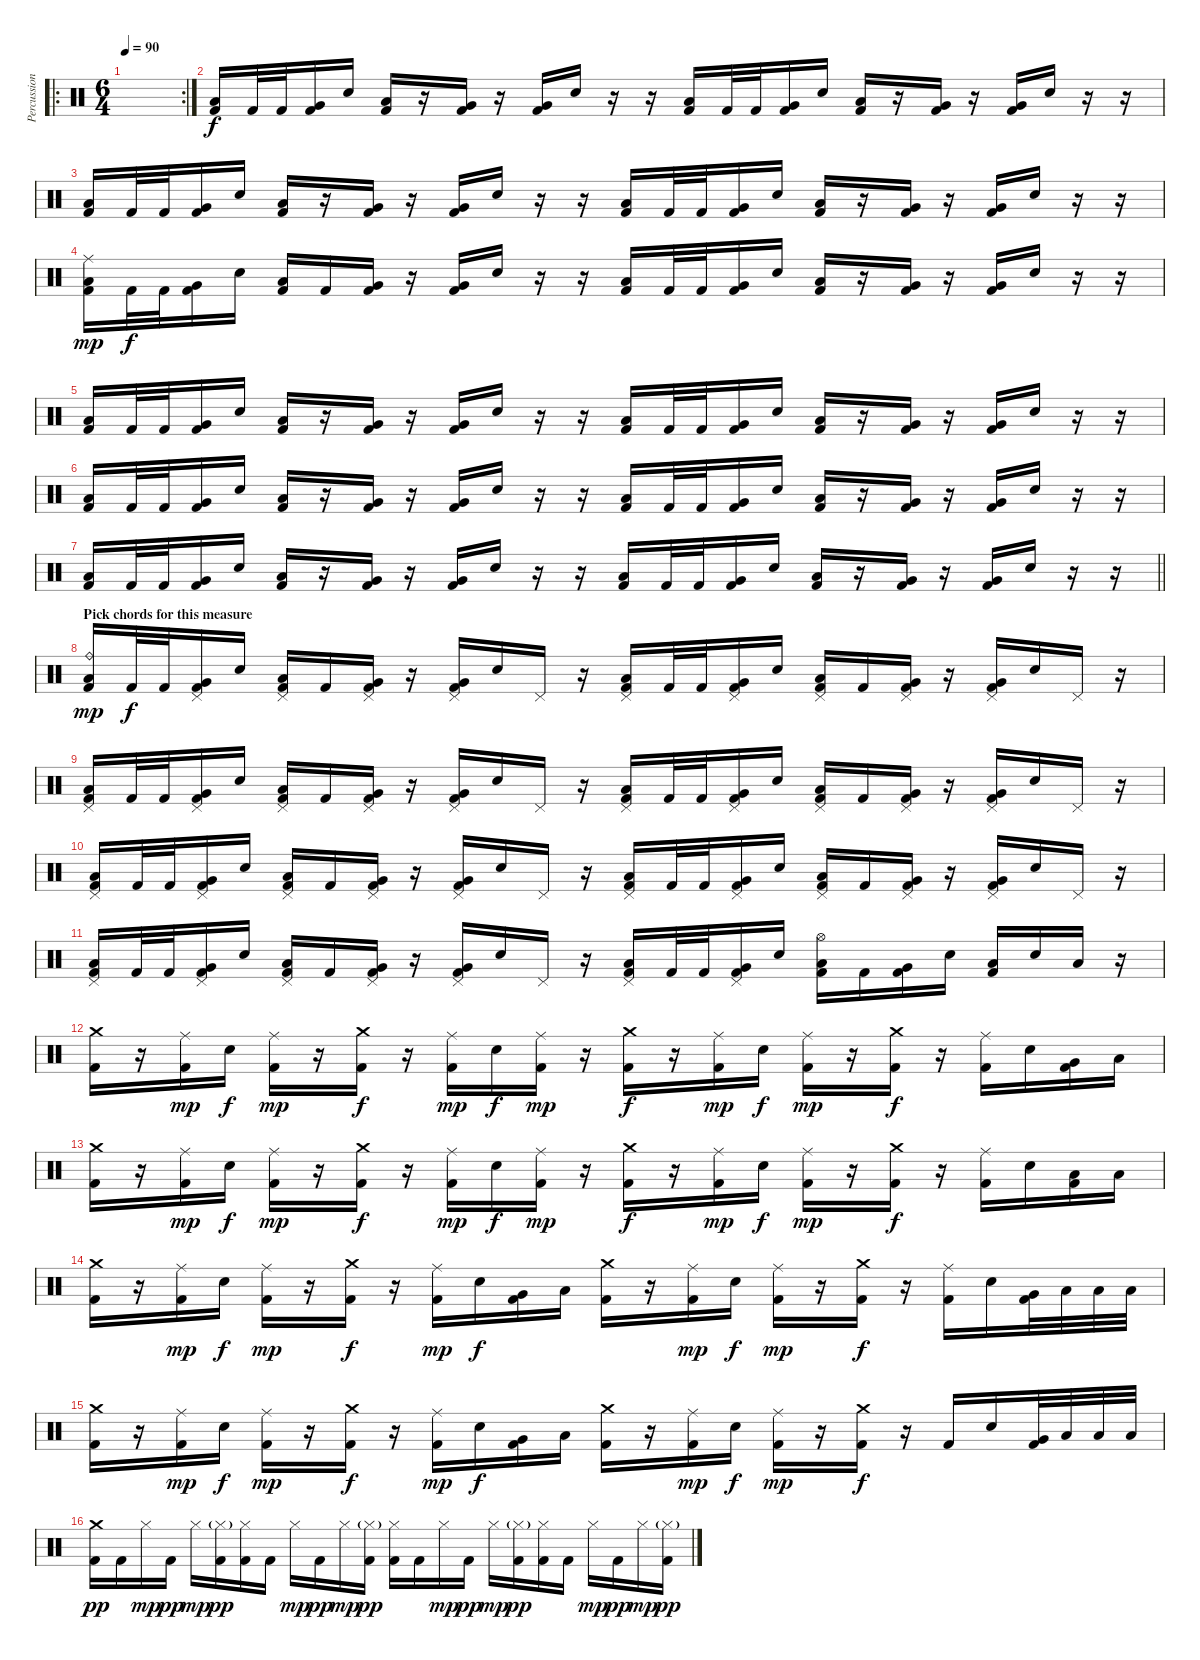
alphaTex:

\track ("Percussion" "Percussion") {instrument percussion}
\staff {score}
\articulation defaults
\ro
\rc 2
\ts (6 4)
\tempo 90
\clef neutral
\ks c
|
("Low Floor Tom (hit)" "Kick (hit) 2").16 "Kick (hit) 2".32 "Kick (hit) 2".32 ("Very Low Tom (hit)" "Kick (hit) 2").16 "Electric Snare (hit)".16 ("Low Floor Tom (hit)" "Kick (hit) 2").16 r.16 ("Very Low Tom (hit)" "Kick (hit) 2").16 r.16 ("Very Low Tom (hit)" "Kick (hit) 2").16 "Electric Snare (hit)".16 r.16 r.16 ("Low Floor Tom (hit)" "Kick (hit) 2").16 "Kick (hit) 2".32 "Kick (hit) 2".32 ("Very Low Tom (hit)" "Kick (hit) 2").16 "Electric Snare (hit)".16 ("Low Floor Tom (hit)" "Kick (hit) 2").16 r.16 ("Very Low Tom (hit)" "Kick (hit) 2").16 r.16 ("Very Low Tom (hit)" "Kick (hit) 2").16 "Electric Snare (hit)".16 r.16 r.16 |
("Low Floor Tom (hit)" "Kick (hit) 2").16 "Kick (hit) 2".32 "Kick (hit) 2".32 ("Very Low Tom (hit)" "Kick (hit) 2").16 "Electric Snare (hit)".16 ("Low Floor Tom (hit)" "Kick (hit) 2").16 r.16 ("Very Low Tom (hit)" "Kick (hit) 2").16 r.16 ("Very Low Tom (hit)" "Kick (hit) 2").16 "Electric Snare (hit)".16 r.16 r.16 ("Low Floor Tom (hit)" "Kick (hit) 2").16 "Kick (hit) 2".32 "Kick (hit) 2".32 ("Very Low Tom (hit)" "Kick (hit) 2").16 "Electric Snare (hit)".16 ("Low Floor Tom (hit)" "Kick (hit) 2").16 r.16 ("Very Low Tom (hit)" "Kick (hit) 2").16 r.16 ("Very Low Tom (hit)" "Kick (hit) 2").16 "Electric Snare (hit)".16 r.16 r.16 |
("Ride (middle)" "Low Floor Tom (hit)" "Kick (hit) 2").16{dy mp} "Kick (hit) 2".32{dy f} "Kick (hit) 2".32 ("Very Low Tom (hit)" "Kick (hit) 2").16 "Electric Snare (hit)".16 ("Low Floor Tom (hit)" "Kick (hit) 2").16 "Kick (hit) 2".16 ("Very Low Tom (hit)" "Kick (hit) 2").16 r.16 ("Very Low Tom (hit)" "Kick (hit) 2").16 "Electric Snare (hit)".16 r.16 r.16 ("Low Floor Tom (hit)" "Kick (hit) 2").16 "Kick (hit) 2".32 "Kick (hit) 2".32 ("Very Low Tom (hit)" "Kick (hit) 2").16 "Electric Snare (hit)".16 ("Low Floor Tom (hit)" "Kick (hit) 2").16 r.16 ("Very Low Tom (hit)" "Kick (hit) 2").16 r.16 ("Very Low Tom (hit)" "Kick (hit) 2").16 "Electric Snare (hit)".16 r.16 r.16 |
("Low Floor Tom (hit)" "Kick (hit) 2").16 "Kick (hit) 2".32 "Kick (hit) 2".32 ("Very Low Tom (hit)" "Kick (hit) 2").16 "Electric Snare (hit)".16 ("Low Floor Tom (hit)" "Kick (hit) 2").16 r.16 ("Very Low Tom (hit)" "Kick (hit) 2").16 r.16 ("Very Low Tom (hit)" "Kick (hit) 2").16 "Electric Snare (hit)".16 r.16 r.16 ("Low Floor Tom (hit)" "Kick (hit) 2").16 "Kick (hit) 2".32 "Kick (hit) 2".32 ("Very Low Tom (hit)" "Kick (hit) 2").16 "Electric Snare (hit)".16 ("Low Floor Tom (hit)" "Kick (hit) 2").16 r.16 ("Very Low Tom (hit)" "Kick (hit) 2").16 r.16 ("Very Low Tom (hit)" "Kick (hit) 2").16 "Electric Snare (hit)".16 r.16 r.16 |
("Low Floor Tom (hit)" "Kick (hit) 2").16 "Kick (hit) 2".32 "Kick (hit) 2".32 ("Very Low Tom (hit)" "Kick (hit) 2").16 "Electric Snare (hit)".16 ("Low Floor Tom (hit)" "Kick (hit) 2").16 r.16 ("Very Low Tom (hit)" "Kick (hit) 2").16 r.16 ("Very Low Tom (hit)" "Kick (hit) 2").16 "Electric Snare (hit)".16 r.16 r.16 ("Low Floor Tom (hit)" "Kick (hit) 2").16 "Kick (hit) 2".32 "Kick (hit) 2".32 ("Very Low Tom (hit)" "Kick (hit) 2").16 "Electric Snare (hit)".16 ("Low Floor Tom (hit)" "Kick (hit) 2").16 r.16 ("Very Low Tom (hit)" "Kick (hit) 2").16 r.16 ("Very Low Tom (hit)" "Kick (hit) 2").16 "Electric Snare (hit)".16 r.16 r.16 |
\barLineRight lightlight
("Low Floor Tom (hit)" "Kick (hit) 2").16 "Kick (hit) 2".32 "Kick (hit) 2".32 ("Very Low Tom (hit)" "Kick (hit) 2").16 "Electric Snare (hit)".16 ("Low Floor Tom (hit)" "Kick (hit) 2").16 r.16 ("Very Low Tom (hit)" "Kick (hit) 2").16 r.16 ("Very Low Tom (hit)" "Kick (hit) 2").16 "Electric Snare (hit)".16 r.16 r.16 ("Low Floor Tom (hit)" "Kick (hit) 2").16 "Kick (hit) 2".32 "Kick (hit) 2".32 ("Very Low Tom (hit)" "Kick (hit) 2").16 "Electric Snare (hit)".16 ("Low Floor Tom (hit)" "Kick (hit) 2").16 r.16 ("Very Low Tom (hit)" "Kick (hit) 2").16 r.16 ("Very Low Tom (hit)" "Kick (hit) 2").16 "Electric Snare (hit)".16 r.16 r.16 |
\section ("" "Pick chords for this measure")
("Ride (bell)" "Low Floor Tom (hit)" "Kick (hit) 2").16{dy mp} "Kick (hit) 2".32{dy f} "Kick (hit) 2".32 ("Pedal Hi-Hat (hit)" "Very Low Tom (hit)" "Kick (hit) 2").16 "Electric Snare (hit)".16 ("Pedal Hi-Hat (hit)" "Low Floor Tom (hit)" "Kick (hit) 2").16 "Kick (hit) 2".16 ("Pedal Hi-Hat (hit)" "Very Low Tom (hit)" "Kick (hit) 2").16 r.16 ("Pedal Hi-Hat (hit)" "Very Low Tom (hit)" "Kick (hit) 2").16 "Electric Snare (hit)".16 "Pedal Hi-Hat (hit)".16 r.16 ("Pedal Hi-Hat (hit)" "Low Floor Tom (hit)" "Kick (hit) 2").16 "Kick (hit) 2".32 "Kick (hit) 2".32 ("Pedal Hi-Hat (hit)" "Very Low Tom (hit)" "Kick (hit) 2").16 "Electric Snare (hit)".16 ("Pedal Hi-Hat (hit)" "Low Floor Tom (hit)" "Kick (hit) 2").16 "Kick (hit) 2".16 ("Pedal Hi-Hat (hit)" "Very Low Tom (hit)" "Kick (hit) 2").16 r.16 ("Pedal Hi-Hat (hit)" "Very Low Tom (hit)" "Kick (hit) 2").16 "Electric Snare (hit)".16 "Pedal Hi-Hat (hit)".16 r.16 |
("Pedal Hi-Hat (hit)" "Low Floor Tom (hit)" "Kick (hit) 2").16 "Kick (hit) 2".32 "Kick (hit) 2".32 ("Pedal Hi-Hat (hit)" "Very Low Tom (hit)" "Kick (hit) 2").16 "Electric Snare (hit)".16 ("Pedal Hi-Hat (hit)" "Low Floor Tom (hit)" "Kick (hit) 2").16 "Kick (hit) 2".16 ("Pedal Hi-Hat (hit)" "Very Low Tom (hit)" "Kick (hit) 2").16 r.16 ("Pedal Hi-Hat (hit)" "Very Low Tom (hit)" "Kick (hit) 2").16 "Electric Snare (hit)".16 "Pedal Hi-Hat (hit)".16 r.16 ("Pedal Hi-Hat (hit)" "Low Floor Tom (hit)" "Kick (hit) 2").16 "Kick (hit) 2".32 "Kick (hit) 2".32 ("Pedal Hi-Hat (hit)" "Very Low Tom (hit)" "Kick (hit) 2").16 "Electric Snare (hit)".16 ("Pedal Hi-Hat (hit)" "Low Floor Tom (hit)" "Kick (hit) 2").16 "Kick (hit) 2".16 ("Pedal Hi-Hat (hit)" "Very Low Tom (hit)" "Kick (hit) 2").16 r.16 ("Pedal Hi-Hat (hit)" "Very Low Tom (hit)" "Kick (hit) 2").16 "Electric Snare (hit)".16 "Pedal Hi-Hat (hit)".16 r.16 |
("Pedal Hi-Hat (hit)" "Low Floor Tom (hit)" "Kick (hit) 2").16 "Kick (hit) 2".32 "Kick (hit) 2".32 ("Pedal Hi-Hat (hit)" "Very Low Tom (hit)" "Kick (hit) 2").16 "Electric Snare (hit)".16 ("Pedal Hi-Hat (hit)" "Low Floor Tom (hit)" "Kick (hit) 2").16 "Kick (hit) 2".16 ("Pedal Hi-Hat (hit)" "Very Low Tom (hit)" "Kick (hit) 2").16 r.16 ("Pedal Hi-Hat (hit)" "Very Low Tom (hit)" "Kick (hit) 2").16 "Electric Snare (hit)".16 "Pedal Hi-Hat (hit)".16 r.16 ("Pedal Hi-Hat (hit)" "Low Floor Tom (hit)" "Kick (hit) 2").16 "Kick (hit) 2".32 "Kick (hit) 2".32 ("Pedal Hi-Hat (hit)" "Very Low Tom (hit)" "Kick (hit) 2").16 "Electric Snare (hit)".16 ("Pedal Hi-Hat (hit)" "Low Floor Tom (hit)" "Kick (hit) 2").16 "Kick (hit) 2".16 ("Pedal Hi-Hat (hit)" "Very Low Tom (hit)" "Kick (hit) 2").16 r.16 ("Pedal Hi-Hat (hit)" "Very Low Tom (hit)" "Kick (hit) 2").16 "Electric Snare (hit)".16 "Pedal Hi-Hat (hit)".16 r.16 |
("Pedal Hi-Hat (hit)" "Low Floor Tom (hit)" "Kick (hit) 2").16 "Kick (hit) 2".32 "Kick (hit) 2".32 ("Pedal Hi-Hat (hit)" "Very Low Tom (hit)" "Kick (hit) 2").16 "Electric Snare (hit)".16 ("Pedal Hi-Hat (hit)" "Low Floor Tom (hit)" "Kick (hit) 2").16 "Kick (hit) 2".16 ("Pedal Hi-Hat (hit)" "Very Low Tom (hit)" "Kick (hit) 2").16 r.16 ("Pedal Hi-Hat (hit)" "Very Low Tom (hit)" "Kick (hit) 2").16 "Electric Snare (hit)".16 "Pedal Hi-Hat (hit)".16 r.16 ("Pedal Hi-Hat (hit)" "Low Floor Tom (hit)" "Kick (hit) 2").16 "Kick (hit) 2".32 "Kick (hit) 2".32 ("Pedal Hi-Hat (hit)" "Very Low Tom (hit)" "Kick (hit) 2").16 "Electric Snare (hit)".16 ("Hi-Hat (open)" "Low Floor Tom (hit)" "Kick (hit) 2").16 "Kick (hit) 2".16 ("Very Low Tom (hit)" "Kick (hit) 2").16 "Electric Snare (hit)".16 ("Low Floor Tom (hit)" "Kick (hit) 2").16 "Electric Snare (hit)".16 "Low Floor Tom (hit)".16 r.16 |
("Crash medium (hit)" "Kick (hit) 2").16 r.16 ("Ride (middle)" "Kick (hit) 2").16{dy mp} "Electric Snare (hit)".16{dy f} ("Ride (middle)" "Kick (hit) 2").16{dy mp} r.16 ("Crash medium (hit)" "Kick (hit) 2").16{dy f} r.16 ("Ride (middle)" "Kick (hit) 2").16{dy mp} "Electric Snare (hit)".16{dy f} ("Ride (middle)" "Kick (hit) 2").16{dy mp} r.16 ("Crash medium (hit)" "Kick (hit) 2").16{dy f} r.16 ("Ride (middle)" "Kick (hit) 2").16{dy mp} "Electric Snare (hit)".16{dy f} ("Ride (middle)" "Kick (hit) 2").16{dy mp} r.16 ("Crash medium (hit)" "Kick (hit) 2").16{dy f} r.16 ("Ride (middle)" "Kick (hit) 2").16 "Electric Snare (hit)".16 ("Very Low Tom (hit)" "Kick (hit) 2").16 "Low Floor Tom (hit)".16 |
("Crash medium (hit)" "Kick (hit) 2").16 r.16 ("Ride (middle)" "Kick (hit) 2").16{dy mp} "Electric Snare (hit)".16{dy f} ("Ride (middle)" "Kick (hit) 2").16{dy mp} r.16 ("Crash medium (hit)" "Kick (hit) 2").16{dy f} r.16 ("Ride (middle)" "Kick (hit) 2").16{dy mp} "Electric Snare (hit)".16{dy f} ("Ride (middle)" "Kick (hit) 2").16{dy mp} r.16 ("Crash medium (hit)" "Kick (hit) 2").16{dy f} r.16 ("Ride (middle)" "Kick (hit) 2").16{dy mp} "Electric Snare (hit)".16{dy f} ("Ride (middle)" "Kick (hit) 2").16{dy mp} r.16 ("Crash medium (hit)" "Kick (hit) 2").16{dy f} r.16 ("Ride (middle)" "Kick (hit) 2").16 "Electric Snare (hit)".16 ("Low Floor Tom (hit)" "Kick (hit) 2").16 "Low Floor Tom (hit)".16 |
("Crash medium (hit)" "Kick (hit) 2").16 r.16 ("Ride (middle)" "Kick (hit) 2").16{dy mp} "Electric Snare (hit)".16{dy f} ("Ride (middle)" "Kick (hit) 2").16{dy mp} r.16 ("Crash medium (hit)" "Kick (hit) 2").16{dy f} r.16 ("Ride (middle)" "Kick (hit) 2").16{dy mp} "Electric Snare (hit)".16{dy f} ("Very Low Tom (hit)" "Kick (hit) 2").16 "Low Floor Tom (hit)".16 ("Crash medium (hit)" "Kick (hit) 2").16 r.16 ("Ride (middle)" "Kick (hit) 2").16{dy mp} "Electric Snare (hit)".16{dy f} ("Ride (middle)" "Kick (hit) 2").16{dy mp} r.16 ("Crash medium (hit)" "Kick (hit) 2").16{dy f} r.16 ("Ride (middle)" "Kick (hit) 2").16 "Electric Snare (hit)".16 ("Very Low Tom (hit)" "Kick (hit) 2").32 "Low Floor Tom (hit)".32 "Low Floor Tom (hit)".32 "Low Floor Tom (hit)".32 |
("Crash medium (hit)" "Kick (hit) 2").16 r.16 ("Ride (middle)" "Kick (hit) 2").16{dy mp} "Electric Snare (hit)".16{dy f} ("Ride (middle)" "Kick (hit) 2").16{dy mp} r.16 ("Crash medium (hit)" "Kick (hit) 2").16{dy f} r.16 ("Ride (middle)" "Kick (hit) 2").16{dy mp} "Electric Snare (hit)".16{dy f} ("Very Low Tom (hit)" "Kick (hit) 2").16 "Low Floor Tom (hit)".16 ("Crash medium (hit)" "Kick (hit) 2").16 r.16 ("Ride (middle)" "Kick (hit) 2").16{dy mp} "Electric Snare (hit)".16{dy f} ("Ride (middle)" "Kick (hit) 2").16{dy mp} r.16 ("Crash medium (hit)" "Kick (hit) 2").16{dy f} r.16 "Kick (hit) 2".16 "Electric Snare (hit)".16 ("Very Low Tom (hit)" "Kick (hit) 2").32 "Low Floor Tom (hit)".32 "Low Floor Tom (hit)".32 "Low Floor Tom (hit)".32 |
("Crash medium (hit)" "Kick (hit) 2").16{dy pp} "Kick (hit) 2".16 "Hi-Hat (closed)".16{dy mp} "Kick (hit) 2".16{dy pp} "Hi-Hat (closed)".16{dy mp} ("Hi-Hat (closed)"{g} "Kick (hit) 2").16{dy pp} ("Hi-Hat (closed)" "Kick (hit) 2").16 "Kick (hit) 2".16 "Hi-Hat (closed)".16{dy mp} "Kick (hit) 2".16{dy pp} "Hi-Hat (closed)".16{dy mp} ("Hi-Hat (closed)"{g} "Kick (hit) 2").16{dy pp} ("Hi-Hat (closed)" "Kick (hit) 2").16 "Kick (hit) 2".16 "Hi-Hat (closed)".16{dy mp} "Kick (hit) 2".16{dy pp} "Hi-Hat (closed)".16{dy mp} ("Hi-Hat (closed)"{g} "Kick (hit) 2").16{dy pp} ("Hi-Hat (closed)" "Kick (hit) 2").16 "Kick (hit) 2".16 "Hi-Hat (closed)".16{dy mp} "Kick (hit) 2".16{dy pp} "Hi-Hat (closed)".16{dy mp} ("Hi-Hat (closed)"{g} "Kick (hit) 2").16{dy pp}
